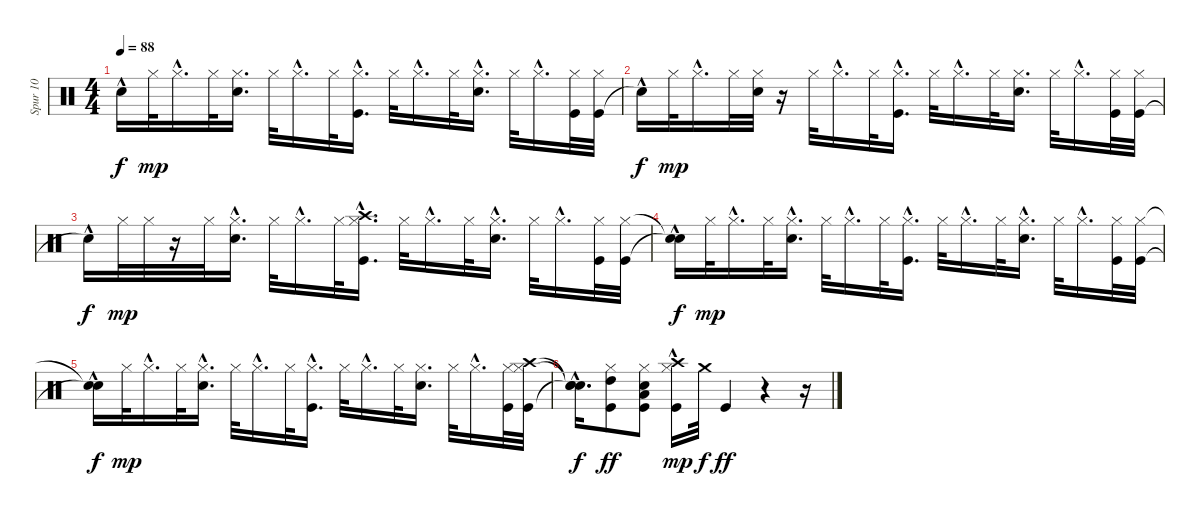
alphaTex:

\track ("Spur 10" "Spur 10") {instrument percussion}
\staff {score}
\articulation defaults
\ts (4 4)
\tempo 88
\clef neutral
\ks c "Snare (hit)"{hac t}.16{dy f} "Hi-Hat (closed)".32{dy mp} "Hi-Hat (closed)"{hac}.16{d} "Hi-Hat (closed)".32
("Snare (hit) 2" "Hi-Hat (closed)").16{d} "Hi-Hat (closed)".32 "Hi-Hat (closed)"{hac}.16{d} "Hi-Hat (closed)".32 ("Kick (hit)"{hac} "Hi-Hat (closed)"{hac}).16{d} "Hi-Hat (closed)".32 "Hi-Hat (closed)"{hac}.16{d} "Hi-Hat (closed)".32 ("Snare (hit) 2"{hac} "Hi-Hat (closed)"{hac}).16{d} "Hi-Hat (closed)".32 "Hi-Hat (closed)"{hac}.16{d} ("Kick (hit)" "Hi-Hat (closed)").32 ("Kick (hit)" "Hi-Hat (closed)").32 |
"Snare (hit)"{hac t}.16{dy f} "Hi-Hat (closed)".32{dy mp} "Hi-Hat (closed)"{hac}.16{d} "Hi-Hat (closed)".32 ("Snare (hit) 2" "Hi-Hat (closed)").32 r.16 "Hi-Hat (closed)".32 "Hi-Hat (closed)"{hac}.16{d} "Hi-Hat (closed)".32 ("Kick (hit)"{hac} "Hi-Hat (closed)"{hac}).16{d} "Hi-Hat (closed)".32 "Hi-Hat (closed)"{hac}.16{d} "Hi-Hat (closed)".32 ("Snare (hit) 2" "Hi-Hat (closed)").16{d} "Hi-Hat (closed)".32 "Hi-Hat (closed)"{hac}.16{d} ("Kick (hit)" "Hi-Hat (closed)").32 ("Kick (hit)" "Hi-Hat (closed)").32 |
"Snare (hit)"{hac t}.16{dy f} "Hi-Hat (closed)".32{dy mp} "Hi-Hat (closed)".32 r.16 "Hi-Hat (closed)".32 ("Snare (hit) 2" "Hi-Hat (closed)"{hac}).16{d} "Hi-Hat (closed)".32 "Hi-Hat (closed)"{hac}.16{d} "Hi-Hat (closed)".32 ("Kick (hit)"{hac} "Hi-Hat (closed)"{hac} "Crash high (hit)"{hac}).16{d} "Hi-Hat (closed)".32 "Hi-Hat (closed)"{hac}.16{d} "Hi-Hat (closed)".32 ("Snare (hit) 2" "Hi-Hat (closed)"{hac}).16{d} "Hi-Hat (closed)".32 "Hi-Hat (closed)"{hac}.16{d} ("Kick (hit)" "Hi-Hat (closed)").32 ("Kick (hit)" "Hi-Hat (closed)").32 |
("Snare (hit)"{hac t} "Snare (hit)"{t}).16{dy f} "Hi-Hat (closed)".32{dy mp} "Hi-Hat (closed)"{hac}.16{d} "Hi-Hat (closed)".32 ("Snare (hit) 2" "Hi-Hat (closed)"{hac}).16{d} "Hi-Hat (closed)".32 "Hi-Hat (closed)"{hac}.16{d} "Hi-Hat (closed)".32 ("Kick (hit)"{hac} "Hi-Hat (closed)"{hac}).16{d} "Hi-Hat (closed)".32 "Hi-Hat (closed)"{hac}.16{d} "Hi-Hat (closed)".32 ("Snare (hit) 2" "Hi-Hat (closed)"{hac}).16{d} "Hi-Hat (closed)".32 "Hi-Hat (closed)"{hac}.16{d} ("Kick (hit)" "Hi-Hat (closed)").32 ("Kick (hit)" "Hi-Hat (closed)").32 |
("Snare (hit)"{hac t} "Snare (hit)"{t}).16{dy f} "Hi-Hat (closed)".32{dy mp} "Hi-Hat (closed)"{hac}.16{d} "Hi-Hat (closed)".32 ("Snare (hit) 2"{hac} "Hi-Hat (closed)"{hac}).16{d} "Hi-Hat (closed)".32 "Hi-Hat (closed)"{hac}.16{d} "Hi-Hat (closed)".32 ("Kick (hit)"{hac} "Hi-Hat (closed)"{hac}).16{d} "Hi-Hat (closed)".32 "Hi-Hat (closed)"{hac}.16{d} "Hi-Hat (closed)".32 ("Snare (hit) 2" "Hi-Hat (closed)").16{d} "Hi-Hat (closed)".32 "Hi-Hat (closed)"{hac}.16{d} ("Kick (hit)" "Hi-Hat (closed)").32 ("Kick (hit)" "Hi-Hat (closed)" "Crash high (hit)").32 |
("Snare (hit)"{hac t} "Snare (hit)"{hac t} "Snare (hit)"{t}).16{d dy f} ("Kick (hit)" "Hi-Hat (closed)" "High Tom (hit)").8{dy ff} ("Kick (hit)" "Snare (hit) 2" "Hi-Hat (closed)" "Low Tom (hit)").8 ("Kick (hit)"{hac} "Hi-Hat (closed)" "Crash high (hit)").16{dy mp} "Crash medium (hit)".32{dy f} "Kick (hit)".4{dy ff} r.4 r.16
